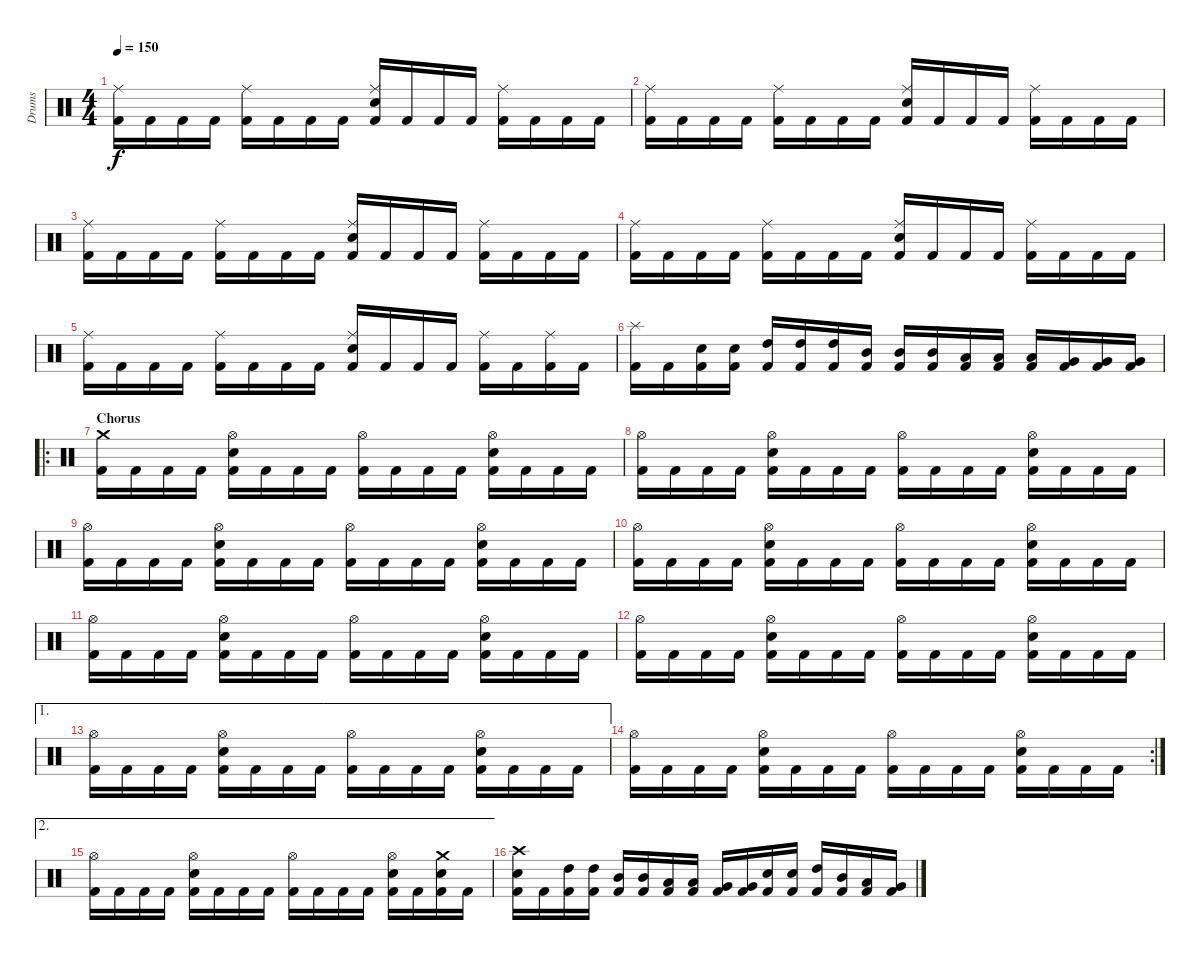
\track ("Drums" "Drums") {instrument percussion}
\staff {score}
\articulation defaults
\ts (4 4)
\tempo 150
\clef neutral
\ks c
("Kick (hit) 2" "Ride (middle)").16{dy f} "Kick (hit) 2".16 "Kick (hit) 2".16 "Kick (hit) 2".16 ("Kick (hit) 2" "Ride (middle)").16 "Kick (hit) 2".16 "Kick (hit) 2".16 "Kick (hit) 2".16 ("Kick (hit) 2" "Electric Snare (hit)" "Ride (middle)").16 "Kick (hit) 2".16 "Kick (hit) 2".16 "Kick (hit) 2".16 ("Kick (hit) 2" "Ride (middle)").16 "Kick (hit) 2".16 "Kick (hit) 2".16 "Kick (hit) 2".16 |
("Kick (hit) 2" "Ride (middle)").16 "Kick (hit) 2".16 "Kick (hit) 2".16 "Kick (hit) 2".16 ("Kick (hit) 2" "Ride (middle)").16 "Kick (hit) 2".16 "Kick (hit) 2".16 "Kick (hit) 2".16 ("Kick (hit) 2" "Electric Snare (hit)" "Ride (middle)").16 "Kick (hit) 2".16 "Kick (hit) 2".16 "Kick (hit) 2".16 ("Kick (hit) 2" "Ride (middle)").16 "Kick (hit) 2".16 "Kick (hit) 2".16 "Kick (hit) 2".16 |
("Kick (hit) 2" "Ride (middle)").16 "Kick (hit) 2".16 "Kick (hit) 2".16 "Kick (hit) 2".16 ("Kick (hit) 2" "Ride (middle)").16 "Kick (hit) 2".16 "Kick (hit) 2".16 "Kick (hit) 2".16 ("Kick (hit) 2" "Electric Snare (hit)" "Ride (middle)").16 "Kick (hit) 2".16 "Kick (hit) 2".16 "Kick (hit) 2".16 ("Kick (hit) 2" "Ride (middle)").16 "Kick (hit) 2".16 "Kick (hit) 2".16 "Kick (hit) 2".16 |
("Kick (hit) 2" "Ride (middle)").16 "Kick (hit) 2".16 "Kick (hit) 2".16 "Kick (hit) 2".16 ("Kick (hit) 2" "Ride (middle)").16 "Kick (hit) 2".16 "Kick (hit) 2".16 "Kick (hit) 2".16 ("Kick (hit) 2" "Electric Snare (hit)" "Ride (middle)").16 "Kick (hit) 2".16 "Kick (hit) 2".16 "Kick (hit) 2".16 ("Kick (hit) 2" "Ride (middle)").16 "Kick (hit) 2".16 "Kick (hit) 2".16 "Kick (hit) 2".16 |
("Kick (hit) 2" "Ride (middle)").16 "Kick (hit) 2".16 "Kick (hit) 2".16 "Kick (hit) 2".16 ("Kick (hit) 2" "Ride (middle)").16 "Kick (hit) 2".16 "Kick (hit) 2".16 "Kick (hit) 2".16 ("Kick (hit) 2" "Electric Snare (hit)" "Ride (middle)").16 "Kick (hit) 2".16 "Kick (hit) 2".16 "Kick (hit) 2".16 ("Kick (hit) 2" "Ride (middle)").16 "Kick (hit) 2".16 ("Kick (hit) 2" "Ride (middle)").16 "Kick (hit) 2".16 |
("Kick (hit) 2" "Splash (hit)").16 "Kick (hit) 2".16 ("Kick (hit) 2" "Electric Snare (hit)").16 ("Kick (hit) 2" "Electric Snare (hit)").16 ("Kick (hit) 2" "High Tom (hit)").16 ("Kick (hit) 2" "High Tom (hit)").16 ("Kick (hit) 2" "High Tom (hit)").16 ("Kick (hit) 2" "Mid Tom (hit)").16 ("Kick (hit) 2" "Mid Tom (hit)").16 ("Kick (hit) 2" "Mid Tom (hit)").16 ("Kick (hit) 2" "Low Tom (hit)").16 ("Kick (hit) 2" "Low Tom (hit)").16 ("Kick (hit) 2" "Low Tom (hit)").16 ("Kick (hit) 2" "Very Low Tom (hit)").16 ("Kick (hit) 2" "Very Low Tom (hit)").16 ("Kick (hit) 2" "Very Low Tom (hit)").16 |
\ro
\section ("" "Chorus")
("Kick (hit) 2" "Crash medium (hit)").16 "Kick (hit) 2".16 "Kick (hit) 2".16 "Kick (hit) 2".16 ("Kick (hit) 2" "Electric Snare (hit)" "Hi-Hat (open)").16 "Kick (hit) 2".16 "Kick (hit) 2".16 "Kick (hit) 2".16 ("Kick (hit) 2" "Hi-Hat (open)").16 "Kick (hit) 2".16 "Kick (hit) 2".16 "Kick (hit) 2".16 ("Kick (hit) 2" "Electric Snare (hit)" "Hi-Hat (open)").16 "Kick (hit) 2".16 "Kick (hit) 2".16 "Kick (hit) 2".16 |
("Kick (hit) 2" "Hi-Hat (open)").16 "Kick (hit) 2".16 "Kick (hit) 2".16 "Kick (hit) 2".16 ("Kick (hit) 2" "Electric Snare (hit)" "Hi-Hat (open)").16 "Kick (hit) 2".16 "Kick (hit) 2".16 "Kick (hit) 2".16 ("Kick (hit) 2" "Hi-Hat (open)").16 "Kick (hit) 2".16 "Kick (hit) 2".16 "Kick (hit) 2".16 ("Kick (hit) 2" "Electric Snare (hit)" "Hi-Hat (open)").16 "Kick (hit) 2".16 "Kick (hit) 2".16 "Kick (hit) 2".16 |
("Kick (hit) 2" "Hi-Hat (open)").16 "Kick (hit) 2".16 "Kick (hit) 2".16 "Kick (hit) 2".16 ("Kick (hit) 2" "Electric Snare (hit)" "Hi-Hat (open)").16 "Kick (hit) 2".16 "Kick (hit) 2".16 "Kick (hit) 2".16 ("Kick (hit) 2" "Hi-Hat (open)").16 "Kick (hit) 2".16 "Kick (hit) 2".16 "Kick (hit) 2".16 ("Kick (hit) 2" "Electric Snare (hit)" "Hi-Hat (open)").16 "Kick (hit) 2".16 "Kick (hit) 2".16 "Kick (hit) 2".16 |
("Kick (hit) 2" "Hi-Hat (open)").16 "Kick (hit) 2".16 "Kick (hit) 2".16 "Kick (hit) 2".16 ("Kick (hit) 2" "Electric Snare (hit)" "Hi-Hat (open)").16 "Kick (hit) 2".16 "Kick (hit) 2".16 "Kick (hit) 2".16 ("Kick (hit) 2" "Hi-Hat (open)").16 "Kick (hit) 2".16 "Kick (hit) 2".16 "Kick (hit) 2".16 ("Kick (hit) 2" "Electric Snare (hit)" "Hi-Hat (open)").16 "Kick (hit) 2".16 "Kick (hit) 2".16 "Kick (hit) 2".16 |
("Kick (hit) 2" "Hi-Hat (open)").16 "Kick (hit) 2".16 "Kick (hit) 2".16 "Kick (hit) 2".16 ("Kick (hit) 2" "Electric Snare (hit)" "Hi-Hat (open)").16 "Kick (hit) 2".16 "Kick (hit) 2".16 "Kick (hit) 2".16 ("Kick (hit) 2" "Hi-Hat (open)").16 "Kick (hit) 2".16 "Kick (hit) 2".16 "Kick (hit) 2".16 ("Kick (hit) 2" "Electric Snare (hit)" "Hi-Hat (open)").16 "Kick (hit) 2".16 "Kick (hit) 2".16 "Kick (hit) 2".16 |
("Kick (hit) 2" "Hi-Hat (open)").16 "Kick (hit) 2".16 "Kick (hit) 2".16 "Kick (hit) 2".16 ("Kick (hit) 2" "Electric Snare (hit)" "Hi-Hat (open)").16 "Kick (hit) 2".16 "Kick (hit) 2".16 "Kick (hit) 2".16 ("Kick (hit) 2" "Hi-Hat (open)").16 "Kick (hit) 2".16 "Kick (hit) 2".16 "Kick (hit) 2".16 ("Kick (hit) 2" "Electric Snare (hit)" "Hi-Hat (open)").16 "Kick (hit) 2".16 "Kick (hit) 2".16 "Kick (hit) 2".16 |
\ae 1
("Kick (hit) 2" "Hi-Hat (open)").16 "Kick (hit) 2".16 "Kick (hit) 2".16 "Kick (hit) 2".16 ("Kick (hit) 2" "Electric Snare (hit)" "Hi-Hat (open)").16 "Kick (hit) 2".16 "Kick (hit) 2".16 "Kick (hit) 2".16 ("Kick (hit) 2" "Hi-Hat (open)").16 "Kick (hit) 2".16 "Kick (hit) 2".16 "Kick (hit) 2".16 ("Kick (hit) 2" "Electric Snare (hit)" "Hi-Hat (open)").16 "Kick (hit) 2".16 "Kick (hit) 2".16 "Kick (hit) 2".16 |
\rc 2
("Kick (hit) 2" "Hi-Hat (open)").16 "Kick (hit) 2".16 "Kick (hit) 2".16 "Kick (hit) 2".16 ("Kick (hit) 2" "Electric Snare (hit)" "Hi-Hat (open)").16 "Kick (hit) 2".16 "Kick (hit) 2".16 "Kick (hit) 2".16 ("Kick (hit) 2" "Hi-Hat (open)").16 "Kick (hit) 2".16 "Kick (hit) 2".16 "Kick (hit) 2".16 ("Kick (hit) 2" "Electric Snare (hit)" "Hi-Hat (open)").16 "Kick (hit) 2".16 "Kick (hit) 2".16 "Kick (hit) 2".16 |
\ae 2
("Kick (hit) 2" "Hi-Hat (open)").16 "Kick (hit) 2".16 "Kick (hit) 2".16 "Kick (hit) 2".16 ("Kick (hit) 2" "Electric Snare (hit)" "Hi-Hat (open)").16 "Kick (hit) 2".16 "Kick (hit) 2".16 "Kick (hit) 2".16 ("Kick (hit) 2" "Hi-Hat (open)").16 "Kick (hit) 2".16 "Kick (hit) 2".16 "Kick (hit) 2".16 ("Kick (hit) 2" "Electric Snare (hit)" "Hi-Hat (open)").16 "Kick (hit) 2".16 ("Kick (hit) 2" "Electric Snare (hit)" "Crash medium (hit)").16 "Kick (hit) 2".16 |
("Kick (hit) 2" "Electric Snare (hit)" "Crash high (hit)").16 "Kick (hit) 2".16 ("Kick (hit) 2" "High Tom (hit)").16 ("Kick (hit) 2" "High Tom (hit)").16 ("Kick (hit) 2" "Mid Tom (hit)").16 ("Kick (hit) 2" "Mid Tom (hit)").16 ("Kick (hit) 2" "Low Tom (hit)").16 ("Kick (hit) 2" "Low Tom (hit)").16 ("Kick (hit) 2" "Very Low Tom (hit)").16 ("Kick (hit) 2" "Very Low Tom (hit)").16 ("Kick (hit) 2" "Electric Snare (hit)").16 ("Kick (hit) 2" "Electric Snare (hit)").16 ("Kick (hit) 2" "High Tom (hit)").16 ("Kick (hit) 2" "Mid Tom (hit)").16 ("Kick (hit) 2" "Low Tom (hit)").16 ("Kick (hit) 2" "Very Low Tom (hit)").16
